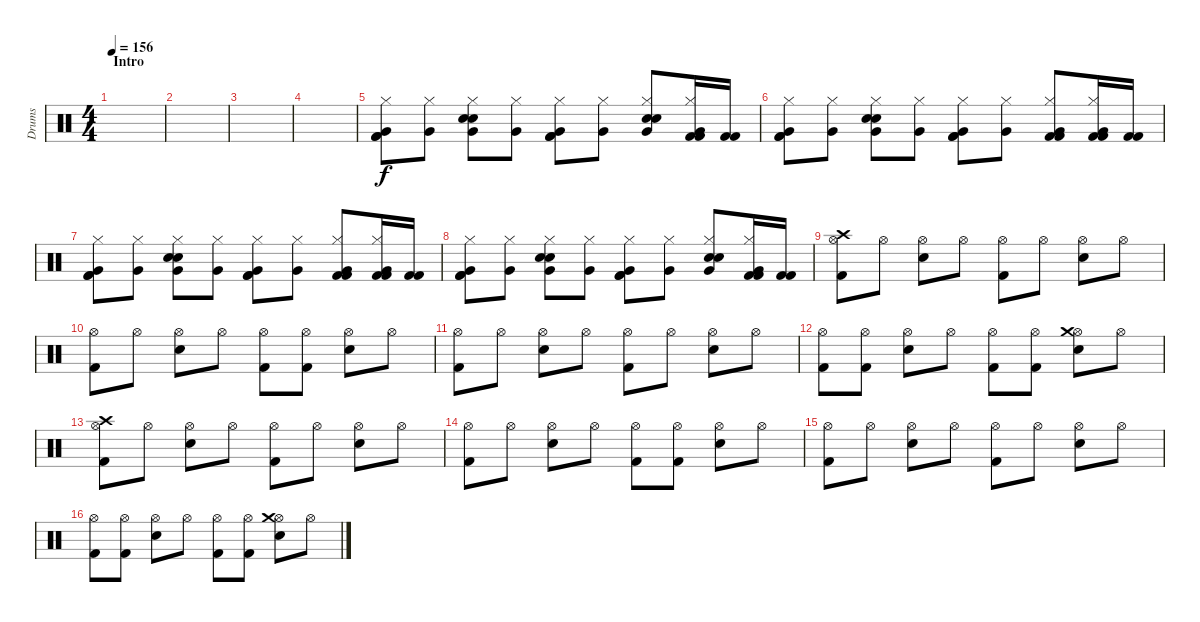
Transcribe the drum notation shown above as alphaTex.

\track ("Drums" "Drums") {instrument percussion}
\staff {score}
\articulation defaults
\ts (4 4)
\section ("" "Intro")
\tempo 156
\clef neutral
\ks c
|
|
|
|
("Very Low Tom (hit)" "Hi-Hat (closed)" "Kick (hit) 2" "Kick (hit) 2").8{volume 10} ("Very Low Tom (hit)" "Hi-Hat (closed)").8 ("Very Low Tom (hit)" "Hi-Hat (closed)" "Electric Snare (hit)" "Electric Snare (hit)").8 ("Very Low Tom (hit)" "Hi-Hat (closed)").8 ("Very Low Tom (hit)" "Hi-Hat (closed)" "Kick (hit) 2" "Kick (hit) 2").8 ("Very Low Tom (hit)" "Hi-Hat (closed)").8 ("Very Low Tom (hit)" "Hi-Hat (closed)" "Electric Snare (hit)" "Electric Snare (hit)").8 ("Very Low Tom (hit)" "Hi-Hat (closed)" "Kick (hit) 2" "Kick (hit) 2").16 ("Kick (hit) 2" "Kick (hit) 2").16 |
("Very Low Tom (hit)" "Hi-Hat (closed)" "Kick (hit) 2" "Kick (hit) 2").8 ("Very Low Tom (hit)" "Hi-Hat (closed)").8 ("Very Low Tom (hit)" "Hi-Hat (closed)" "Electric Snare (hit)" "Electric Snare (hit)").8 ("Very Low Tom (hit)" "Hi-Hat (closed)").8 ("Very Low Tom (hit)" "Hi-Hat (closed)" "Kick (hit) 2" "Kick (hit) 2").8 ("Very Low Tom (hit)" "Hi-Hat (closed)").8 ("Very Low Tom (hit)" "Hi-Hat (closed)" "Kick (hit) 2" "Kick (hit) 2").8 ("Very Low Tom (hit)" "Hi-Hat (closed)" "Kick (hit) 2" "Kick (hit) 2").16 ("Kick (hit) 2" "Kick (hit) 2").16 |
("Very Low Tom (hit)" "Hi-Hat (closed)" "Kick (hit) 2" "Kick (hit) 2").8 ("Very Low Tom (hit)" "Hi-Hat (closed)").8 ("Very Low Tom (hit)" "Hi-Hat (closed)" "Electric Snare (hit)" "Electric Snare (hit)").8 ("Very Low Tom (hit)" "Hi-Hat (closed)").8 ("Very Low Tom (hit)" "Hi-Hat (closed)" "Kick (hit) 2" "Kick (hit) 2").8 ("Very Low Tom (hit)" "Hi-Hat (closed)").8 ("Very Low Tom (hit)" "Hi-Hat (closed)" "Kick (hit) 2" "Kick (hit) 2").8 ("Very Low Tom (hit)" "Hi-Hat (closed)" "Kick (hit) 2" "Kick (hit) 2").16 ("Kick (hit) 2" "Kick (hit) 2").16 |
("Very Low Tom (hit)" "Hi-Hat (closed)" "Kick (hit) 2" "Kick (hit) 2").8 ("Very Low Tom (hit)" "Hi-Hat (closed)").8 ("Very Low Tom (hit)" "Hi-Hat (closed)" "Electric Snare (hit)" "Electric Snare (hit)").8 ("Very Low Tom (hit)" "Hi-Hat (closed)").8 ("Very Low Tom (hit)" "Hi-Hat (closed)" "Kick (hit) 2" "Kick (hit) 2").8 ("Very Low Tom (hit)" "Hi-Hat (closed)").8 ("Very Low Tom (hit)" "Hi-Hat (closed)" "Electric Snare (hit)" "Electric Snare (hit)").8 ("Very Low Tom (hit)" "Hi-Hat (closed)" "Kick (hit) 2" "Kick (hit) 2").16 ("Kick (hit) 2" "Kick (hit) 2").16 |
("Hi-Hat (open)" "Kick (hit) 2" "Crash high (hit)").8{volume 16} "Hi-Hat (open)".8 ("Hi-Hat (open)" "Electric Snare (hit)").8 "Hi-Hat (open)".8 ("Hi-Hat (open)" "Kick (hit) 2").8 "Hi-Hat (open)".8 ("Hi-Hat (open)" "Electric Snare (hit)").8 "Hi-Hat (open)".8 |
("Hi-Hat (open)" "Kick (hit) 2").8 "Hi-Hat (open)".8 ("Hi-Hat (open)" "Electric Snare (hit)").8 "Hi-Hat (open)".8 ("Hi-Hat (open)" "Kick (hit) 2").8 ("Hi-Hat (open)" "Kick (hit) 2").8 ("Hi-Hat (open)" "Electric Snare (hit)").8 "Hi-Hat (open)".8 |
("Hi-Hat (open)" "Kick (hit) 2").8 "Hi-Hat (open)".8 ("Hi-Hat (open)" "Electric Snare (hit)").8 "Hi-Hat (open)".8 ("Hi-Hat (open)" "Kick (hit) 2").8 "Hi-Hat (open)".8 ("Hi-Hat (open)" "Electric Snare (hit)").8 "Hi-Hat (open)".8 |
("Hi-Hat (open)" "Kick (hit) 2").8 ("Hi-Hat (open)" "Kick (hit) 2").8 ("Hi-Hat (open)" "Electric Snare (hit)").8 "Hi-Hat (open)".8 ("Hi-Hat (open)" "Kick (hit) 2").8 ("Hi-Hat (open)" "Kick (hit) 2").8 ("Hi-Hat (open)" "Electric Snare (hit)" "Crash medium (hit)").8 "Hi-Hat (open)".8 |
("Hi-Hat (open)" "Kick (hit) 2" "Crash high (hit)").8{volume 16} "Hi-Hat (open)".8 ("Hi-Hat (open)" "Electric Snare (hit)").8 "Hi-Hat (open)".8 ("Hi-Hat (open)" "Kick (hit) 2").8 "Hi-Hat (open)".8 ("Hi-Hat (open)" "Electric Snare (hit)").8 "Hi-Hat (open)".8 |
("Hi-Hat (open)" "Kick (hit) 2").8 "Hi-Hat (open)".8 ("Hi-Hat (open)" "Electric Snare (hit)").8 "Hi-Hat (open)".8 ("Hi-Hat (open)" "Kick (hit) 2").8 ("Hi-Hat (open)" "Kick (hit) 2").8 ("Hi-Hat (open)" "Electric Snare (hit)").8 "Hi-Hat (open)".8 |
("Hi-Hat (open)" "Kick (hit) 2").8 "Hi-Hat (open)".8 ("Hi-Hat (open)" "Electric Snare (hit)").8 "Hi-Hat (open)".8 ("Hi-Hat (open)" "Kick (hit) 2").8 "Hi-Hat (open)".8 ("Hi-Hat (open)" "Electric Snare (hit)").8 "Hi-Hat (open)".8 |
("Hi-Hat (open)" "Kick (hit) 2").8 ("Hi-Hat (open)" "Kick (hit) 2").8 ("Hi-Hat (open)" "Electric Snare (hit)").8 "Hi-Hat (open)".8 ("Hi-Hat (open)" "Kick (hit) 2").8 ("Hi-Hat (open)" "Kick (hit) 2").8 ("Hi-Hat (open)" "Electric Snare (hit)" "Crash medium (hit)").8 "Hi-Hat (open)".8
